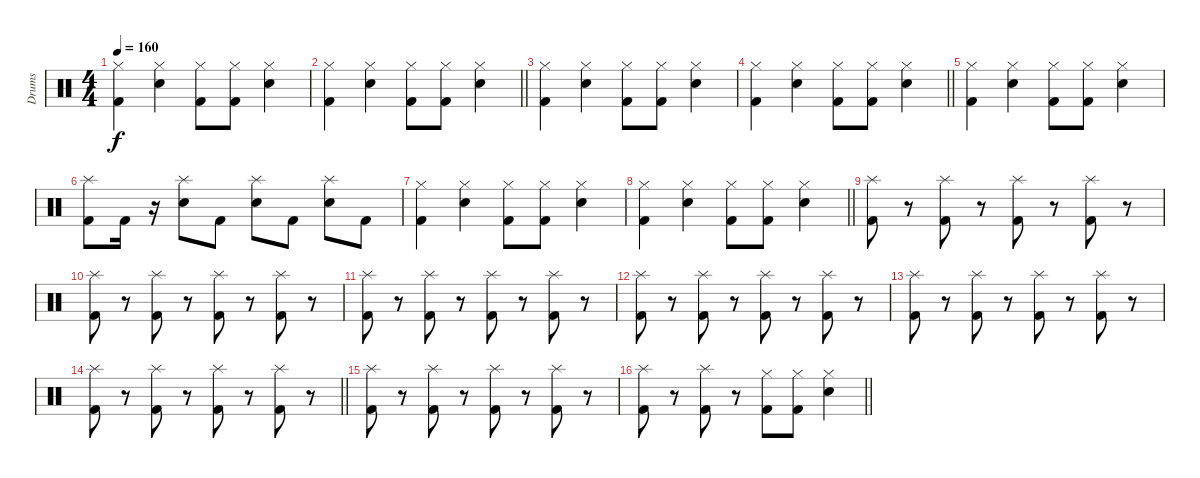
\track ("Drums" "Drums") {instrument percussion}
\staff {score}
\articulation defaults
\ts (4 4)
\tempo 160
\clef neutral
\ks c
("Hi-Hat (closed)" "Kick (hit) 2").4{dy f} ("Hi-Hat (closed)" "Snare (hit) 2").4 ("Hi-Hat (closed)" "Kick (hit) 2").8 ("Hi-Hat (closed)" "Kick (hit) 2").8 ("Hi-Hat (closed)" "Snare (hit) 2").4 |
\barLineRight lightlight
("Hi-Hat (closed)" "Kick (hit) 2").4 ("Hi-Hat (closed)" "Snare (hit) 2").4 ("Hi-Hat (closed)" "Kick (hit) 2").8 ("Hi-Hat (closed)" "Kick (hit) 2").8 ("Hi-Hat (closed)" "Snare (hit) 2").4 |
("Hi-Hat (closed)" "Kick (hit) 2").4 ("Hi-Hat (closed)" "Snare (hit) 2").4 ("Hi-Hat (closed)" "Kick (hit) 2").8 ("Hi-Hat (closed)" "Kick (hit) 2").8 ("Hi-Hat (closed)" "Snare (hit) 2").4 |
\barLineRight lightlight
("Hi-Hat (closed)" "Kick (hit) 2").4 ("Hi-Hat (closed)" "Snare (hit) 2").4 ("Hi-Hat (closed)" "Kick (hit) 2").8 ("Hi-Hat (closed)" "Kick (hit) 2").8 ("Hi-Hat (closed)" "Snare (hit) 2").4 |
("Hi-Hat (closed)" "Kick (hit) 2").4 ("Hi-Hat (closed)" "Snare (hit) 2").4 ("Hi-Hat (closed)" "Kick (hit) 2").8 ("Hi-Hat (closed)" "Kick (hit) 2").8 ("Hi-Hat (closed)" "Snare (hit) 2").4 |
("Splash (hit)" "Kick (hit) 2").8 "Kick (hit) 2".16 r.16 ("Splash (hit)" "Electric Snare (hit)").8 "Kick (hit) 2".8 ("Splash (hit)" "Electric Snare (hit)").8 "Kick (hit) 2".8 ("Splash (hit)" "Electric Snare (hit)").8 "Kick (hit) 2".8 |
("Hi-Hat (closed)" "Kick (hit) 2").4 ("Hi-Hat (closed)" "Snare (hit) 2").4 ("Hi-Hat (closed)" "Kick (hit) 2").8 ("Hi-Hat (closed)" "Kick (hit) 2").8 ("Hi-Hat (closed)" "Snare (hit) 2").4 |
\barLineRight lightlight
("Hi-Hat (closed)" "Kick (hit) 2").4 ("Hi-Hat (closed)" "Snare (hit) 2").4 ("Hi-Hat (closed)" "Kick (hit) 2").8 ("Hi-Hat (closed)" "Kick (hit) 2").8 ("Hi-Hat (closed)" "Snare (hit) 2").4 |
("Splash (hit)" "Kick (hit) 2").8 r.8 ("Splash (hit)" "Kick (hit) 2").8 r.8 ("Splash (hit)" "Kick (hit) 2").8 r.8 ("Splash (hit)" "Kick (hit) 2").8 r.8 |
("Splash (hit)" "Kick (hit) 2").8 r.8 ("Splash (hit)" "Kick (hit) 2").8 r.8 ("Splash (hit)" "Kick (hit) 2").8 r.8 ("Splash (hit)" "Kick (hit) 2").8 r.8 |
("Splash (hit)" "Kick (hit) 2").8 r.8 ("Splash (hit)" "Kick (hit) 2").8 r.8 ("Splash (hit)" "Kick (hit) 2").8 r.8 ("Splash (hit)" "Kick (hit) 2").8 r.8 |
("Splash (hit)" "Kick (hit) 2").8 r.8 ("Splash (hit)" "Kick (hit) 2").8 r.8 ("Splash (hit)" "Kick (hit) 2").8 r.8 ("Splash (hit)" "Kick (hit) 2").8 r.8 |
("Splash (hit)" "Kick (hit) 2").8 r.8 ("Splash (hit)" "Kick (hit) 2").8 r.8 ("Splash (hit)" "Kick (hit) 2").8 r.8 ("Splash (hit)" "Kick (hit) 2").8 r.8 |
\barLineRight lightlight
("Splash (hit)" "Kick (hit) 2").8 r.8 ("Splash (hit)" "Kick (hit) 2").8 r.8 ("Splash (hit)" "Kick (hit) 2").8 r.8 ("Splash (hit)" "Kick (hit) 2").8 r.8 |
("Splash (hit)" "Kick (hit) 2").8 r.8 ("Splash (hit)" "Kick (hit) 2").8 r.8 ("Splash (hit)" "Kick (hit) 2").8 r.8 ("Splash (hit)" "Kick (hit) 2").8 r.8 |
\barLineRight lightlight
("Splash (hit)" "Kick (hit) 2").8 r.8 ("Splash (hit)" "Kick (hit) 2").8 r.8 ("Hi-Hat (closed)" "Kick (hit) 2").8 ("Hi-Hat (closed)" "Kick (hit) 2").8 ("Hi-Hat (closed)" "Snare (hit) 2").4
